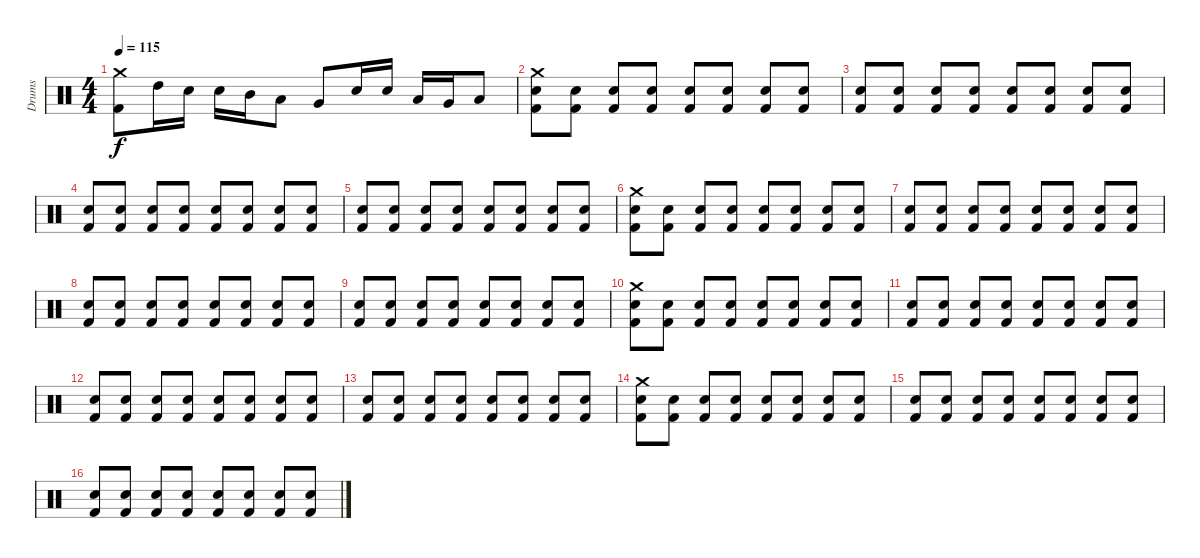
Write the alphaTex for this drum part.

\track ("Drums" "Drums") {instrument percussion}
\staff {score}
\articulation defaults
\ts (4 4)
\tempo 115
\clef neutral
\ks c
("Crash medium (hit)" "Kick (hit) 2").8{dy f} "High Tom (hit)".16 "Snare (hit) 2".16 "Snare (hit) 2".16 "Mid Tom (hit)".16 "Low Tom (hit)".8 "Very Low Tom (hit)".8 "Snare (hit) 2".16 "Snare (hit) 2".16 "Low Tom (hit)".16 "Very Low Tom (hit)".16 "Low Floor Tom (hit)".8 |
("Crash medium (hit)" "Snare (hit) 2" "Kick (hit) 2").8 ("Snare (hit) 2" "Kick (hit) 2").8 ("Snare (hit) 2" "Kick (hit) 2").8 ("Snare (hit) 2" "Kick (hit) 2").8 ("Snare (hit) 2" "Kick (hit) 2").8 ("Snare (hit) 2" "Kick (hit) 2").8 ("Snare (hit) 2" "Kick (hit) 2").8 ("Snare (hit) 2" "Kick (hit) 2").8 |
("Snare (hit) 2" "Kick (hit) 2").8 ("Snare (hit) 2" "Kick (hit) 2").8 ("Snare (hit) 2" "Kick (hit) 2").8 ("Snare (hit) 2" "Kick (hit) 2").8 ("Snare (hit) 2" "Kick (hit) 2").8 ("Snare (hit) 2" "Kick (hit) 2").8 ("Snare (hit) 2" "Kick (hit) 2").8 ("Snare (hit) 2" "Kick (hit) 2").8 |
("Snare (hit) 2" "Kick (hit) 2").8 ("Snare (hit) 2" "Kick (hit) 2").8 ("Snare (hit) 2" "Kick (hit) 2").8 ("Snare (hit) 2" "Kick (hit) 2").8 ("Snare (hit) 2" "Kick (hit) 2").8 ("Snare (hit) 2" "Kick (hit) 2").8 ("Snare (hit) 2" "Kick (hit) 2").8 ("Snare (hit) 2" "Kick (hit) 2").8 |
("Snare (hit) 2" "Kick (hit) 2").8 ("Snare (hit) 2" "Kick (hit) 2").8 ("Snare (hit) 2" "Kick (hit) 2").8 ("Snare (hit) 2" "Kick (hit) 2").8 ("Snare (hit) 2" "Kick (hit) 2").8 ("Snare (hit) 2" "Kick (hit) 2").8 ("Snare (hit) 2" "Kick (hit) 2").8 ("Snare (hit) 2" "Kick (hit) 2").8 |
("Crash medium (hit)" "Snare (hit) 2" "Kick (hit) 2").8 ("Snare (hit) 2" "Kick (hit) 2").8 ("Snare (hit) 2" "Kick (hit) 2").8 ("Snare (hit) 2" "Kick (hit) 2").8 ("Snare (hit) 2" "Kick (hit) 2").8 ("Snare (hit) 2" "Kick (hit) 2").8 ("Snare (hit) 2" "Kick (hit) 2").8 ("Snare (hit) 2" "Kick (hit) 2").8 |
("Snare (hit) 2" "Kick (hit) 2").8 ("Snare (hit) 2" "Kick (hit) 2").8 ("Snare (hit) 2" "Kick (hit) 2").8 ("Snare (hit) 2" "Kick (hit) 2").8 ("Snare (hit) 2" "Kick (hit) 2").8 ("Snare (hit) 2" "Kick (hit) 2").8 ("Snare (hit) 2" "Kick (hit) 2").8 ("Snare (hit) 2" "Kick (hit) 2").8 |
("Snare (hit) 2" "Kick (hit) 2").8 ("Snare (hit) 2" "Kick (hit) 2").8 ("Snare (hit) 2" "Kick (hit) 2").8 ("Snare (hit) 2" "Kick (hit) 2").8 ("Snare (hit) 2" "Kick (hit) 2").8 ("Snare (hit) 2" "Kick (hit) 2").8 ("Snare (hit) 2" "Kick (hit) 2").8 ("Snare (hit) 2" "Kick (hit) 2").8 |
("Snare (hit) 2" "Kick (hit) 2").8 ("Snare (hit) 2" "Kick (hit) 2").8 ("Snare (hit) 2" "Kick (hit) 2").8 ("Snare (hit) 2" "Kick (hit) 2").8 ("Snare (hit) 2" "Kick (hit) 2").8 ("Snare (hit) 2" "Kick (hit) 2").8 ("Snare (hit) 2" "Kick (hit) 2").8 ("Snare (hit) 2" "Kick (hit) 2").8 |
("Crash medium (hit)" "Snare (hit) 2" "Kick (hit) 2").8 ("Snare (hit) 2" "Kick (hit) 2").8 ("Snare (hit) 2" "Kick (hit) 2").8 ("Snare (hit) 2" "Kick (hit) 2").8 ("Snare (hit) 2" "Kick (hit) 2").8 ("Snare (hit) 2" "Kick (hit) 2").8 ("Snare (hit) 2" "Kick (hit) 2").8 ("Snare (hit) 2" "Kick (hit) 2").8 |
("Snare (hit) 2" "Kick (hit) 2").8 ("Snare (hit) 2" "Kick (hit) 2").8 ("Snare (hit) 2" "Kick (hit) 2").8 ("Snare (hit) 2" "Kick (hit) 2").8 ("Snare (hit) 2" "Kick (hit) 2").8 ("Snare (hit) 2" "Kick (hit) 2").8 ("Snare (hit) 2" "Kick (hit) 2").8 ("Snare (hit) 2" "Kick (hit) 2").8 |
("Snare (hit) 2" "Kick (hit) 2").8 ("Snare (hit) 2" "Kick (hit) 2").8 ("Snare (hit) 2" "Kick (hit) 2").8 ("Snare (hit) 2" "Kick (hit) 2").8 ("Snare (hit) 2" "Kick (hit) 2").8 ("Snare (hit) 2" "Kick (hit) 2").8 ("Snare (hit) 2" "Kick (hit) 2").8 ("Snare (hit) 2" "Kick (hit) 2").8 |
("Snare (hit) 2" "Kick (hit) 2").8 ("Snare (hit) 2" "Kick (hit) 2").8 ("Snare (hit) 2" "Kick (hit) 2").8 ("Snare (hit) 2" "Kick (hit) 2").8 ("Snare (hit) 2" "Kick (hit) 2").8 ("Snare (hit) 2" "Kick (hit) 2").8 ("Snare (hit) 2" "Kick (hit) 2").8 ("Snare (hit) 2" "Kick (hit) 2").8 |
("Crash medium (hit)" "Snare (hit) 2" "Kick (hit) 2").8 ("Snare (hit) 2" "Kick (hit) 2").8 ("Snare (hit) 2" "Kick (hit) 2").8 ("Snare (hit) 2" "Kick (hit) 2").8 ("Snare (hit) 2" "Kick (hit) 2").8 ("Snare (hit) 2" "Kick (hit) 2").8 ("Snare (hit) 2" "Kick (hit) 2").8 ("Snare (hit) 2" "Kick (hit) 2").8 |
("Snare (hit) 2" "Kick (hit) 2").8 ("Snare (hit) 2" "Kick (hit) 2").8 ("Snare (hit) 2" "Kick (hit) 2").8 ("Snare (hit) 2" "Kick (hit) 2").8 ("Snare (hit) 2" "Kick (hit) 2").8 ("Snare (hit) 2" "Kick (hit) 2").8 ("Snare (hit) 2" "Kick (hit) 2").8 ("Snare (hit) 2" "Kick (hit) 2").8 |
("Snare (hit) 2" "Kick (hit) 2").8 ("Snare (hit) 2" "Kick (hit) 2").8 ("Snare (hit) 2" "Kick (hit) 2").8 ("Snare (hit) 2" "Kick (hit) 2").8 ("Snare (hit) 2" "Kick (hit) 2").8 ("Snare (hit) 2" "Kick (hit) 2").8 ("Snare (hit) 2" "Kick (hit) 2").8 ("Snare (hit) 2" "Kick (hit) 2").8
